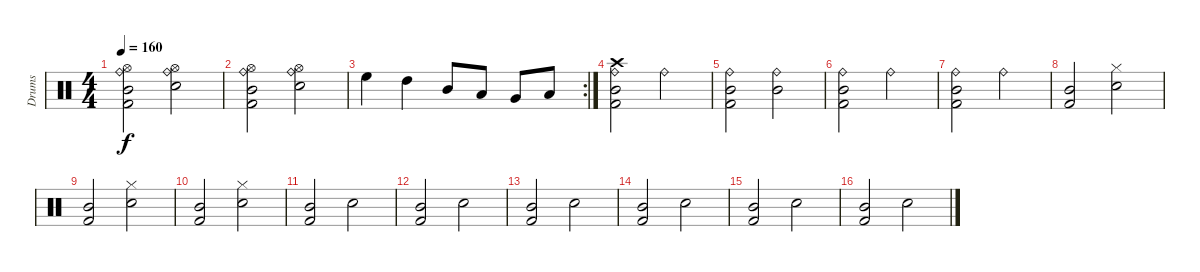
\track ("Drums" "Drums") {instrument percussion}
\staff {score}
\articulation defaults
\ts (4 4)
\tempo 160
\clef neutral
\ks c
("Mid Tom (hit)" "Kick (hit) 2" "Ride (bell)" "Hi-Hat (open)").2{dy f} ("Electric Snare (hit)" "Ride (bell)" "Hi-Hat (open)").2 |
("Mid Tom (hit)" "Kick (hit) 2" "Ride (bell)" "Hi-Hat (open)").2 ("Electric Snare (hit)" "Ride (bell)" "Hi-Hat (open)").2 |
\rc 2 "High Floor Tom (hit)".4 "High Tom (hit)".4 "Mid Tom (hit)".8 "Low Tom (hit)".8 "Very Low Tom (hit)".8 "Low Floor Tom (hit)".8
|
("Mid Tom (hit)" "Kick (hit) 2" "Ride (bell)" "Crash high (hit)").2 "Ride (bell)".2 |
("Mid Tom (hit)" "Kick (hit) 2" "Ride (bell)").2 ("Mid Tom (hit)" "Ride (bell)").2 |
("Mid Tom (hit)" "Kick (hit) 2" "Ride (bell)").2 "Ride (bell)".2 |
("Mid Tom (hit)" "Kick (hit) 2" "Ride (bell)").2 "Ride (bell)".2 |
("Kick (hit) 2" "Mid Tom (hit)").2 ("Hi-Hat (closed)" "Electric Snare (hit)").2 |
("Mid Tom (hit)" "Kick (hit) 2").2 ("Hi-Hat (closed)" "Electric Snare (hit)").2 |
("Mid Tom (hit)" "Kick (hit) 2").2 ("Hi-Hat (closed)" "Electric Snare (hit)").2 |
("Mid Tom (hit)" "Kick (hit) 2").2 "Electric Snare (hit)".2 |
("Mid Tom (hit)" "Kick (hit) 2").2 "Electric Snare (hit)".2 |
("Mid Tom (hit)" "Kick (hit) 2").2 "Electric Snare (hit)".2 |
("Mid Tom (hit)" "Kick (hit) 2").2 "Electric Snare (hit)".2 |
("Mid Tom (hit)" "Kick (hit) 2").2 "Electric Snare (hit)".2 |
("Mid Tom (hit)" "Kick (hit) 2").2 "Electric Snare (hit)".2
